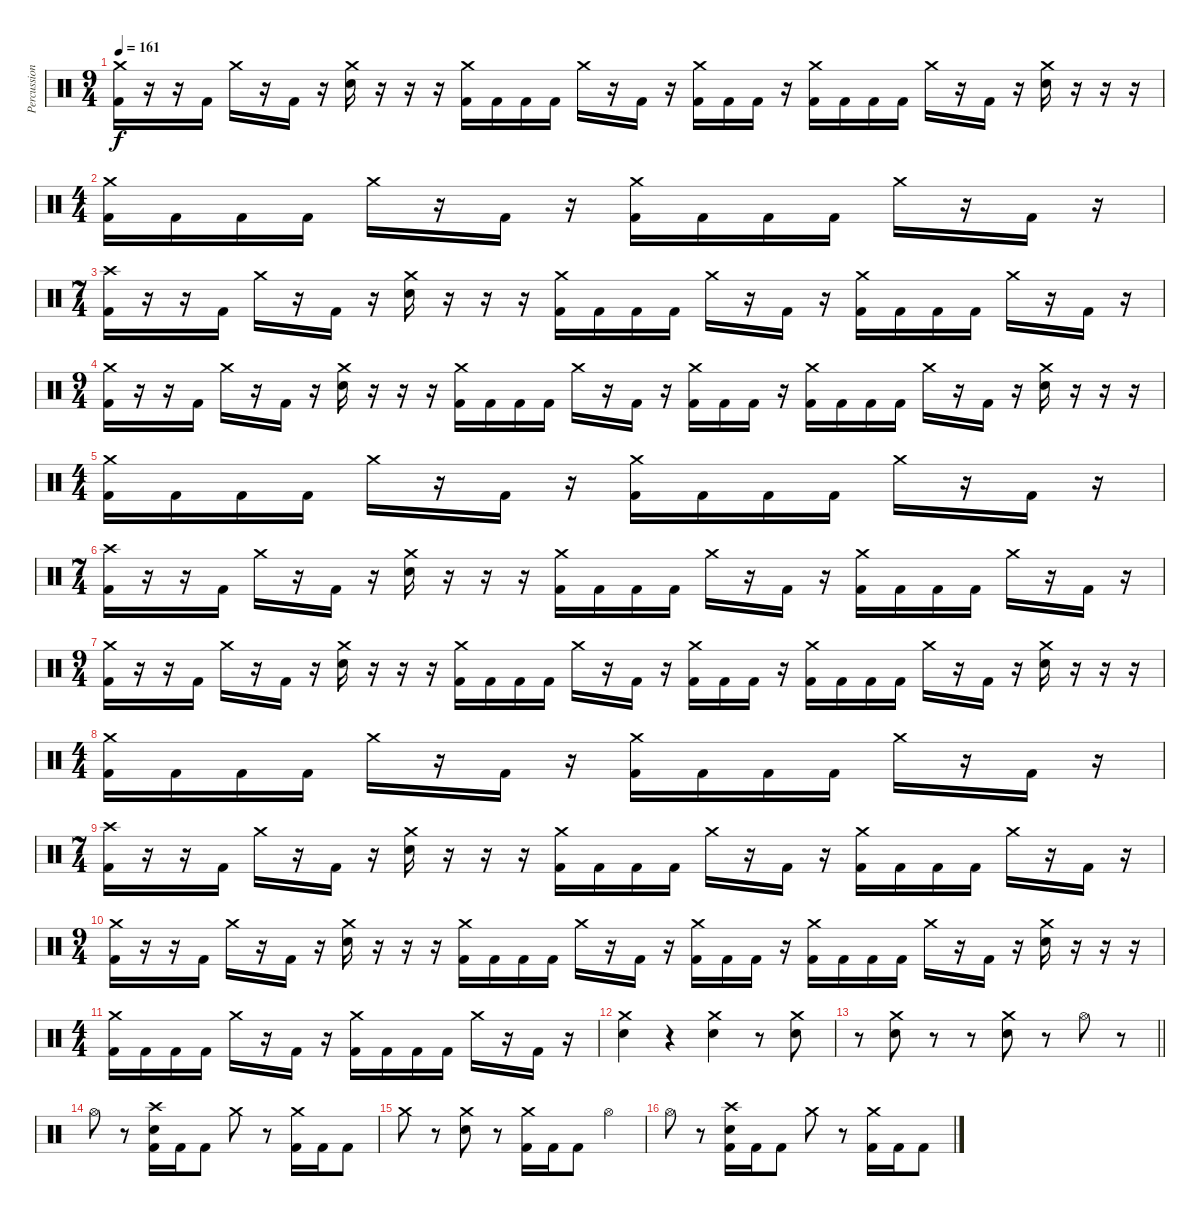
\track ("Percussion" "Percussion") {instrument percussion}
\staff {score}
\articulation defaults
\ts (9 4)
\tempo 161
\clef neutral
\ks c
("Crash medium (hit)" "Kick (hit) 2").16{dy f} r.16 r.16 "Kick (hit) 2".16 "Crash medium (hit)".16 r.16 "Kick (hit) 2".16 r.16 ("Crash medium (hit)" "Electric Snare (hit)").16 r.16 r.16 r.16 ("Crash medium (hit)" "Kick (hit) 2").16 "Kick (hit) 2".16 "Kick (hit) 2".16 "Kick (hit) 2".16 "Crash medium (hit)".16 r.16 "Kick (hit) 2".16 r.16 ("Crash medium (hit)" "Kick (hit) 2").16 "Kick (hit) 2".16 "Kick (hit) 2".16 r.16 ("Crash medium (hit)" "Kick (hit) 2").16 "Kick (hit) 2".16 "Kick (hit) 2".16 "Kick (hit) 2".16 "Crash medium (hit)".16 r.16 "Kick (hit) 2".16 r.16 ("Crash medium (hit)" "Electric Snare (hit)").16 r.16 r.16 r.16 |
\ts (4 4)
("Crash medium (hit)" "Kick (hit) 2").16 "Kick (hit) 2".16 "Kick (hit) 2".16 "Kick (hit) 2".16 "Crash medium (hit)".16 r.16 "Kick (hit) 2".16 r.16 ("Crash medium (hit)" "Kick (hit) 2").16 "Kick (hit) 2".16 "Kick (hit) 2".16 "Kick (hit) 2".16 "Crash medium (hit)".16 r.16 "Kick (hit) 2".16 r.16 |
\ts (7 4)
("Crash high (hit)" "Kick (hit) 2").16 r.16 r.16 "Kick (hit) 2".16 "Crash medium (hit)".16 r.16 "Kick (hit) 2".16 r.16 ("Crash medium (hit)" "Electric Snare (hit)").16 r.16 r.16 r.16 ("Crash medium (hit)" "Kick (hit) 2").16 "Kick (hit) 2".16 "Kick (hit) 2".16 "Kick (hit) 2".16 "Crash medium (hit)".16 r.16 "Kick (hit) 2".16 r.16 ("Crash medium (hit)" "Kick (hit) 2").16 "Kick (hit) 2".16 "Kick (hit) 2".16 "Kick (hit) 2".16 "Crash medium (hit)".16 r.16 "Kick (hit) 2".16 r.16 |
\ts (9 4)
("Crash medium (hit)" "Kick (hit) 2").16 r.16 r.16 "Kick (hit) 2".16 "Crash medium (hit)".16 r.16 "Kick (hit) 2".16 r.16 ("Crash medium (hit)" "Electric Snare (hit)").16 r.16 r.16 r.16 ("Crash medium (hit)" "Kick (hit) 2").16 "Kick (hit) 2".16 "Kick (hit) 2".16 "Kick (hit) 2".16 "Crash medium (hit)".16 r.16 "Kick (hit) 2".16 r.16 ("Crash medium (hit)" "Kick (hit) 2").16 "Kick (hit) 2".16 "Kick (hit) 2".16 r.16 ("Crash medium (hit)" "Kick (hit) 2").16 "Kick (hit) 2".16 "Kick (hit) 2".16 "Kick (hit) 2".16 "Crash medium (hit)".16 r.16 "Kick (hit) 2".16 r.16 ("Crash medium (hit)" "Electric Snare (hit)").16 r.16 r.16 r.16 |
\ts (4 4)
("Crash medium (hit)" "Kick (hit) 2").16 "Kick (hit) 2".16 "Kick (hit) 2".16 "Kick (hit) 2".16 "Crash medium (hit)".16 r.16 "Kick (hit) 2".16 r.16 ("Crash medium (hit)" "Kick (hit) 2").16 "Kick (hit) 2".16 "Kick (hit) 2".16 "Kick (hit) 2".16 "Crash medium (hit)".16 r.16 "Kick (hit) 2".16 r.16 |
\ts (7 4)
("Crash high (hit)" "Kick (hit) 2").16 r.16 r.16 "Kick (hit) 2".16 "Crash medium (hit)".16 r.16 "Kick (hit) 2".16 r.16 ("Crash medium (hit)" "Electric Snare (hit)").16 r.16 r.16 r.16 ("Crash medium (hit)" "Kick (hit) 2").16 "Kick (hit) 2".16 "Kick (hit) 2".16 "Kick (hit) 2".16 "Crash medium (hit)".16 r.16 "Kick (hit) 2".16 r.16 ("Crash medium (hit)" "Kick (hit) 2").16 "Kick (hit) 2".16 "Kick (hit) 2".16 "Kick (hit) 2".16 "Crash medium (hit)".16 r.16 "Kick (hit) 2".16 r.16 |
\ts (9 4)
("Crash medium (hit)" "Kick (hit) 2").16 r.16 r.16 "Kick (hit) 2".16 "Crash medium (hit)".16 r.16 "Kick (hit) 2".16 r.16 ("Crash medium (hit)" "Electric Snare (hit)").16 r.16 r.16 r.16 ("Crash medium (hit)" "Kick (hit) 2").16 "Kick (hit) 2".16 "Kick (hit) 2".16 "Kick (hit) 2".16 "Crash medium (hit)".16 r.16 "Kick (hit) 2".16 r.16 ("Crash medium (hit)" "Kick (hit) 2").16 "Kick (hit) 2".16 "Kick (hit) 2".16 r.16 ("Crash medium (hit)" "Kick (hit) 2").16 "Kick (hit) 2".16 "Kick (hit) 2".16 "Kick (hit) 2".16 "Crash medium (hit)".16 r.16 "Kick (hit) 2".16 r.16 ("Crash medium (hit)" "Electric Snare (hit)").16 r.16 r.16 r.16 |
\ts (4 4)
("Crash medium (hit)" "Kick (hit) 2").16 "Kick (hit) 2".16 "Kick (hit) 2".16 "Kick (hit) 2".16 "Crash medium (hit)".16 r.16 "Kick (hit) 2".16 r.16 ("Crash medium (hit)" "Kick (hit) 2").16 "Kick (hit) 2".16 "Kick (hit) 2".16 "Kick (hit) 2".16 "Crash medium (hit)".16 r.16 "Kick (hit) 2".16 r.16 |
\ts (7 4)
("Crash high (hit)" "Kick (hit) 2").16 r.16 r.16 "Kick (hit) 2".16 "Crash medium (hit)".16 r.16 "Kick (hit) 2".16 r.16 ("Crash medium (hit)" "Electric Snare (hit)").16 r.16 r.16 r.16 ("Crash medium (hit)" "Kick (hit) 2").16 "Kick (hit) 2".16 "Kick (hit) 2".16 "Kick (hit) 2".16 "Crash medium (hit)".16 r.16 "Kick (hit) 2".16 r.16 ("Crash medium (hit)" "Kick (hit) 2").16 "Kick (hit) 2".16 "Kick (hit) 2".16 "Kick (hit) 2".16 "Crash medium (hit)".16 r.16 "Kick (hit) 2".16 r.16 |
\ts (9 4)
("Crash medium (hit)" "Kick (hit) 2").16 r.16 r.16 "Kick (hit) 2".16 "Crash medium (hit)".16 r.16 "Kick (hit) 2".16 r.16 ("Crash medium (hit)" "Electric Snare (hit)").16 r.16 r.16 r.16 ("Crash medium (hit)" "Kick (hit) 2").16 "Kick (hit) 2".16 "Kick (hit) 2".16 "Kick (hit) 2".16 "Crash medium (hit)".16 r.16 "Kick (hit) 2".16 r.16 ("Crash medium (hit)" "Kick (hit) 2").16 "Kick (hit) 2".16 "Kick (hit) 2".16 r.16 ("Crash medium (hit)" "Kick (hit) 2").16 "Kick (hit) 2".16 "Kick (hit) 2".16 "Kick (hit) 2".16 "Crash medium (hit)".16 r.16 "Kick (hit) 2".16 r.16 ("Crash medium (hit)" "Electric Snare (hit)").16 r.16 r.16 r.16 |
\ts (4 4)
("Crash medium (hit)" "Kick (hit) 2").16 "Kick (hit) 2".16 "Kick (hit) 2".16 "Kick (hit) 2".16 "Crash medium (hit)".16 r.16 "Kick (hit) 2".16 r.16 ("Crash medium (hit)" "Kick (hit) 2").16 "Kick (hit) 2".16 "Kick (hit) 2".16 "Kick (hit) 2".16 "Crash medium (hit)".16 r.16 "Kick (hit) 2".16 r.16 |
("Crash medium (hit)" "Electric Snare (hit)").4 r.4 ("Crash medium (hit)" "Electric Snare (hit)").4 r.8 ("Crash medium (hit)" "Electric Snare (hit)").8 |
\barLineRight lightlight
r.8 ("Crash medium (hit)" "Electric Snare (hit)").8 r.8 r.8 ("Crash medium (hit)" "Electric Snare (hit)").8 r.8 "Hi-Hat (open)".8 r.8 |
\section ("" "")
"Hi-Hat (open)".8 r.8 ("Crash high (hit)" "Electric Snare (hit)" "Kick (hit) 2").16 "Kick (hit) 2".16 "Kick (hit) 2".8 "Crash medium (hit)".8 r.8 ("Crash medium (hit)" "Kick (hit) 2").16 "Kick (hit) 2".16 "Kick (hit) 2".8 |
"Crash medium (hit)".8 r.8 ("Crash medium (hit)" "Electric Snare (hit)").8 r.8 ("Crash medium (hit)" "Kick (hit) 2").16 "Kick (hit) 2".16 "Kick (hit) 2".8 "Hi-Hat (open)".4 |
"Hi-Hat (open)".8 r.8 ("Crash high (hit)" "Electric Snare (hit)" "Kick (hit) 2").16 "Kick (hit) 2".16 "Kick (hit) 2".8 "Crash medium (hit)".8 r.8 ("Crash medium (hit)" "Kick (hit) 2").16 "Kick (hit) 2".16 "Kick (hit) 2".8
